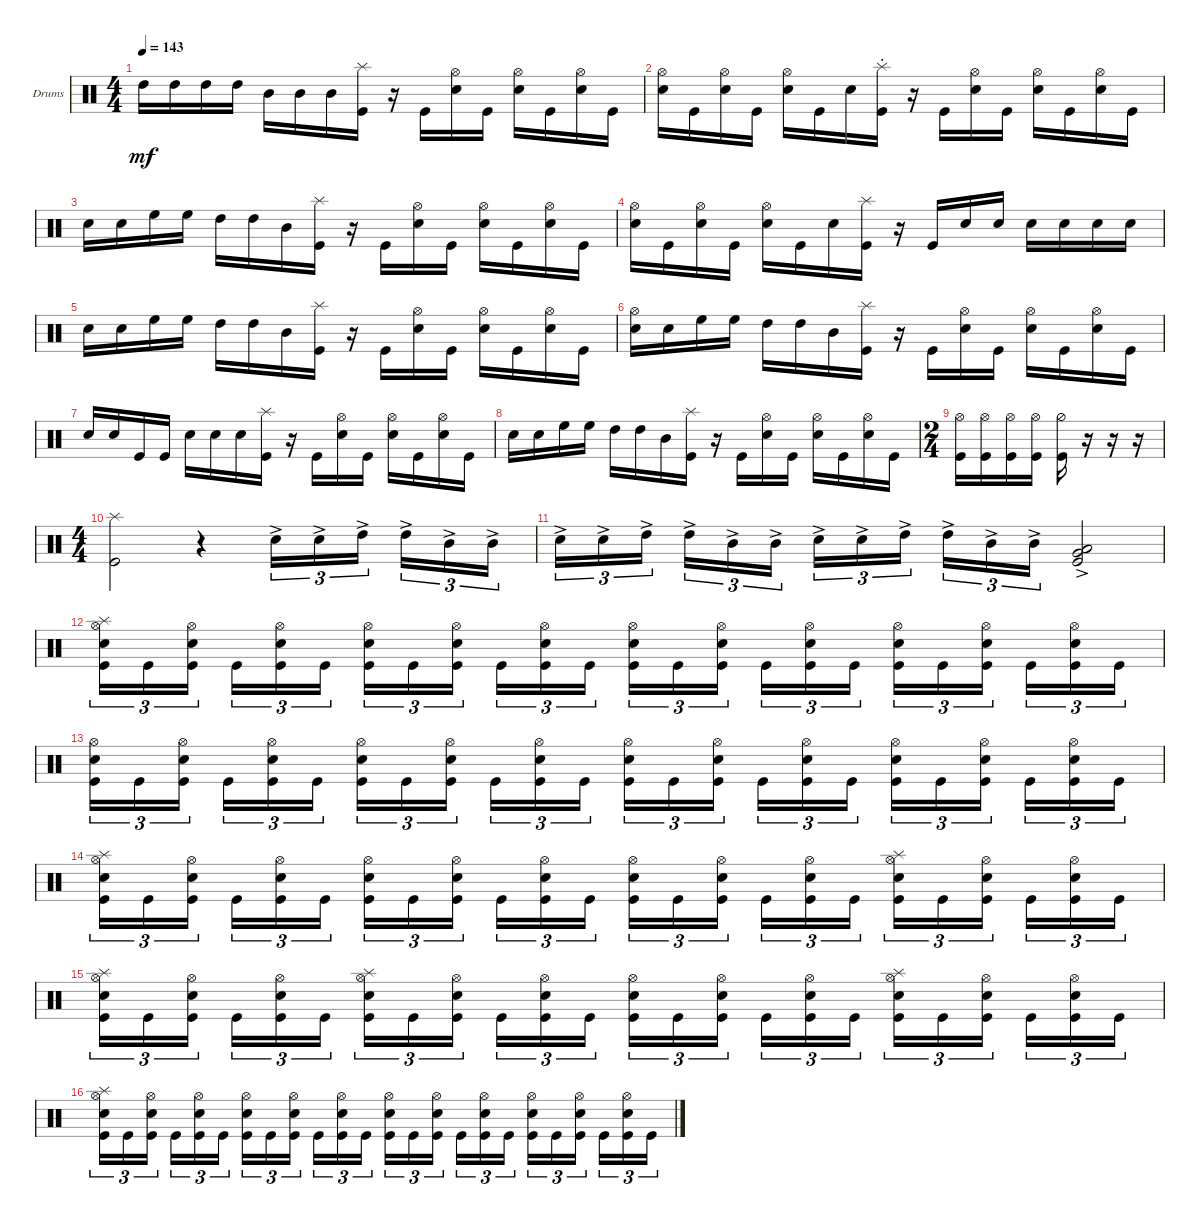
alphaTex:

\bracketExtendMode groupsimilarinstruments
\firstSystemTrackNameOrientation horizontal
\otherSystemsTrackNameOrientation horizontal
\track ("death drumz" "Drums") {instrument percussion}
\staff {score}
\articulation defaults
\ts (4 4)
\tempo 143
\clef neutral
\ks c "High Tom (hit)".16{dy mf} "High Tom (hit)".16 "High Tom (hit)".16 "High Tom (hit)".16 "Mid Tom (hit)".16 "Mid Tom (hit)".16 "Mid Tom (hit)".16
("Kick (hit)" "Splash (hit)").16 r.16 "Kick (hit)".16 ("Snare (hit) 2" "Hi-Hat (open)").16 "Kick (hit)".16 ("Snare (hit) 2" "Hi-Hat (open)").16 "Kick (hit)".16 ("Snare (hit) 2" "Hi-Hat (open)").16 "Kick (hit)".16 |
("Snare (hit) 2" "Hi-Hat (open)").16 "Kick (hit)".16 ("Snare (hit) 2" "Hi-Hat (open)").16 "Kick (hit)".16 ("Snare (hit) 2" "Hi-Hat (open)").16 "Kick (hit)".16 "Snare (hit) 2".16 ("Kick (hit)" "Splash (hit)"{st}).16 r.16 "Kick (hit)".16 ("Snare (hit) 2" "Hi-Hat (open)").16 "Kick (hit)".16 ("Snare (hit) 2" "Hi-Hat (open)").16 "Kick (hit)".16 ("Snare (hit) 2" "Hi-Hat (open)").16 "Kick (hit)".16 |
"Snare (hit) 2".16 "Snare (hit) 2".16 "High Floor Tom (hit)".16 "High Floor Tom (hit)".16 "High Tom (hit)".16 "High Tom (hit)".16 "Mid Tom (hit)".16 ("Kick (hit)" "Splash (hit)").16 r.16 "Kick (hit)".16 ("Snare (hit) 2" "Hi-Hat (open)").16 "Kick (hit)".16 ("Snare (hit) 2" "Hi-Hat (open)").16 "Kick (hit)".16 ("Snare (hit) 2" "Hi-Hat (open)").16 "Kick (hit)".16 |
("Snare (hit) 2" "Hi-Hat (open)").16 "Kick (hit)".16 ("Snare (hit) 2" "Hi-Hat (open)").16 "Kick (hit)".16 ("Snare (hit) 2" "Hi-Hat (open)").16 "Kick (hit)".16 "Snare (hit) 2".16 ("Kick (hit)" "Splash (hit)").16 r.16 "Kick (hit)".16 "Snare (hit) 2".16 "Snare (hit) 2".16 "Snare (hit) 2".16 "Snare (hit) 2".16 "Snare (hit) 2".16 "Snare (hit) 2".16 |
"Snare (hit) 2".16 "Snare (hit) 2".16 "High Floor Tom (hit)".16 "High Floor Tom (hit)".16 "High Tom (hit)".16 "High Tom (hit)".16 "Mid Tom (hit)".16 ("Kick (hit)" "Splash (hit)").16 r.16 "Kick (hit)".16 ("Snare (hit) 2" "Hi-Hat (open)").16 "Kick (hit)".16 ("Snare (hit) 2" "Hi-Hat (open)").16 "Kick (hit)".16 ("Snare (hit) 2" "Hi-Hat (open)").16 "Kick (hit)".16 |
("Snare (hit) 2" "Hi-Hat (open)").16 "Snare (hit) 2".16 "High Floor Tom (hit)".16 "High Floor Tom (hit)".16 "High Tom (hit)".16 "High Tom (hit)".16 "Mid Tom (hit)".16 ("Kick (hit)" "Splash (hit)").16 r.16 "Kick (hit)".16 ("Snare (hit) 2" "Hi-Hat (open)").16 "Kick (hit)".16 ("Snare (hit) 2" "Hi-Hat (open)").16 "Kick (hit)".16 ("Snare (hit) 2" "Hi-Hat (open)").16 "Kick (hit)".16 |
"Snare (hit) 2".16 "Snare (hit) 2".16 "Kick (hit)".16 "Kick (hit)".16 "Snare (hit) 2".16 "Snare (hit) 2".16 "Snare (hit) 2".16 ("Kick (hit)" "Splash (hit)").16 r.16 "Kick (hit)".16 ("Snare (hit) 2" "Hi-Hat (open)").16 "Kick (hit)".16 ("Snare (hit) 2" "Hi-Hat (open)").16 "Kick (hit)".16 ("Snare (hit) 2" "Hi-Hat (open)").16 "Kick (hit)".16 |
"Snare (hit) 2".16 "Snare (hit) 2".16 "High Floor Tom (hit)".16 "High Floor Tom (hit)".16 "High Tom (hit)".16 "High Tom (hit)".16 "Mid Tom (hit)".16 ("Kick (hit)" "Splash (hit)").16 r.16 "Kick (hit)".16 ("Snare (hit) 2" "Hi-Hat (open)").16 "Kick (hit)".16 ("Snare (hit) 2" "Hi-Hat (open)").16 "Kick (hit)".16 ("Snare (hit) 2" "Hi-Hat (open)").16 "Kick (hit)".16 |
\ts (2 4)
("Kick (hit)" "Hi-Hat (open)").16 ("Kick (hit)" "Hi-Hat (open)").16 ("Kick (hit)" "Hi-Hat (open)").16 ("Kick (hit)" "Hi-Hat (open)").16 ("Kick (hit)" "Hi-Hat (half)").16 r.16 r.16 r.16 |
\ts (4 4)
("Kick (hit)" "Splash (hit)").2 r.4 "Snare (hit) 2"{ac}.16{tu (3 2)} "Snare (hit) 2"{ac}.16{tu (3 2)} "High Tom (hit)"{ac}.16{tu (3 2)} "High Tom (hit)"{ac}.16{tu (3 2)} "Mid Tom (hit)"{ac}.16{tu (3 2)} "Mid Tom (hit)"{ac}.16{tu (3 2)} |
"Snare (hit) 2"{ac}.16{tu (3 2)} "Snare (hit) 2"{ac}.16{tu (3 2)} "High Tom (hit)"{ac}.16{tu (3 2)} "High Tom (hit)"{ac}.16{tu (3 2)} "Mid Tom (hit)"{ac}.16{tu (3 2)} "Mid Tom (hit)"{ac}.16{tu (3 2)} "Snare (hit) 2"{ac}.16{tu (3 2)} "Snare (hit) 2"{ac}.16{tu (3 2)} "High Tom (hit)"{ac}.16{tu (3 2)} "High Tom (hit)"{ac}.16{tu (3 2)} "Mid Tom (hit)"{ac}.16{tu (3 2)} "Mid Tom (hit)"{ac}.16{tu (3 2)} ("Very Low Tom (hit)"{ac} "Low Tom (hit)"{ac} "Kick (hit)"{ac}).2 |
("Kick (hit)" "Snare (hit) 2" "Hi-Hat (open)" "Splash (hit)").16{tu (3 2)} "Kick (hit)".16{tu (3 2)} ("Kick (hit)" "Snare (hit) 2" "Hi-Hat (open)").16{tu (3 2)} "Kick (hit)".16{tu (3 2)} ("Kick (hit)" "Snare (hit) 2" "Hi-Hat (open)").16{tu (3 2)} "Kick (hit)".16{tu (3 2)} ("Kick (hit)" "Snare (hit) 2" "Hi-Hat (open)").16{tu (3 2)} "Kick (hit)".16{tu (3 2)} ("Kick (hit)" "Snare (hit) 2" "Hi-Hat (open)").16{tu (3 2)} "Kick (hit)".16{tu (3 2)} ("Kick (hit)" "Snare (hit) 2" "Hi-Hat (open)").16{tu (3 2)} "Kick (hit)".16{tu (3 2)} ("Kick (hit)" "Snare (hit) 2" "Hi-Hat (open)").16{tu (3 2)} "Kick (hit)".16{tu (3 2)} ("Kick (hit)" "Snare (hit) 2" "Hi-Hat (open)").16{tu (3 2)} "Kick (hit)".16{tu (3 2)} ("Kick (hit)" "Snare (hit) 2" "Hi-Hat (open)").16{tu (3 2)} "Kick (hit)".16{tu (3 2)} ("Kick (hit)" "Snare (hit) 2" "Hi-Hat (open)").16{tu (3 2)} "Kick (hit)".16{tu (3 2)} ("Kick (hit)" "Snare (hit) 2" "Hi-Hat (open)").16{tu (3 2)} "Kick (hit)".16{tu (3 2)} ("Kick (hit)" "Snare (hit) 2" "Hi-Hat (open)").16{tu (3 2)} "Kick (hit)".16{tu (3 2)} |
("Kick (hit)" "Snare (hit) 2" "Hi-Hat (open)").16{tu (3 2)} "Kick (hit)".16{tu (3 2)} ("Kick (hit)" "Snare (hit) 2" "Hi-Hat (open)").16{tu (3 2)} "Kick (hit)".16{tu (3 2)} ("Kick (hit)" "Snare (hit) 2" "Hi-Hat (open)").16{tu (3 2)} "Kick (hit)".16{tu (3 2)} ("Kick (hit)" "Snare (hit) 2" "Hi-Hat (open)").16{tu (3 2)} "Kick (hit)".16{tu (3 2)} ("Kick (hit)" "Snare (hit) 2" "Hi-Hat (open)").16{tu (3 2)} "Kick (hit)".16{tu (3 2)} ("Kick (hit)" "Snare (hit) 2" "Hi-Hat (open)").16{tu (3 2)} "Kick (hit)".16{tu (3 2)} ("Kick (hit)" "Snare (hit) 2" "Hi-Hat (open)").16{tu (3 2)} "Kick (hit)".16{tu (3 2)} ("Kick (hit)" "Snare (hit) 2" "Hi-Hat (open)").16{tu (3 2)} "Kick (hit)".16{tu (3 2)} ("Kick (hit)" "Snare (hit) 2" "Hi-Hat (open)").16{tu (3 2)} "Kick (hit)".16{tu (3 2)} ("Kick (hit)" "Snare (hit) 2" "Hi-Hat (open)").16{tu (3 2)} "Kick (hit)".16{tu (3 2)} ("Kick (hit)" "Snare (hit) 2" "Hi-Hat (open)").16{tu (3 2)} "Kick (hit)".16{tu (3 2)} ("Kick (hit)" "Snare (hit) 2" "Hi-Hat (open)").16{tu (3 2)} "Kick (hit)".16{tu (3 2)} |
("Kick (hit)" "Snare (hit) 2" "Hi-Hat (open)" "Splash (hit)").16{tu (3 2)} "Kick (hit)".16{tu (3 2)} ("Kick (hit)" "Snare (hit) 2" "Hi-Hat (open)").16{tu (3 2)} "Kick (hit)".16{tu (3 2)} ("Kick (hit)" "Snare (hit) 2" "Hi-Hat (open)").16{tu (3 2)} "Kick (hit)".16{tu (3 2)} ("Kick (hit)" "Snare (hit) 2" "Hi-Hat (open)").16{tu (3 2)} "Kick (hit)".16{tu (3 2)} ("Kick (hit)" "Snare (hit) 2" "Hi-Hat (open)").16{tu (3 2)} "Kick (hit)".16{tu (3 2)} ("Kick (hit)" "Snare (hit) 2" "Hi-Hat (open)").16{tu (3 2)} "Kick (hit)".16{tu (3 2)} ("Kick (hit)" "Snare (hit) 2" "Hi-Hat (open)").16{tu (3 2)} "Kick (hit)".16{tu (3 2)} ("Kick (hit)" "Snare (hit) 2" "Hi-Hat (open)").16{tu (3 2)} "Kick (hit)".16{tu (3 2)} ("Kick (hit)" "Snare (hit) 2" "Hi-Hat (open)").16{tu (3 2)} "Kick (hit)".16{tu (3 2)} ("Kick (hit)" "Snare (hit) 2" "Hi-Hat (open)" "Splash (hit)").16{tu (3 2)} "Kick (hit)".16{tu (3 2)} ("Kick (hit)" "Snare (hit) 2" "Hi-Hat (open)").16{tu (3 2)} "Kick (hit)".16{tu (3 2)} ("Kick (hit)" "Snare (hit) 2" "Hi-Hat (open)").16{tu (3 2)} "Kick (hit)".16{tu (3 2)} |
("Kick (hit)" "Snare (hit) 2" "Hi-Hat (open)" "Splash (hit)").16{tu (3 2)} "Kick (hit)".16{tu (3 2)} ("Kick (hit)" "Snare (hit) 2" "Hi-Hat (open)").16{tu (3 2)} "Kick (hit)".16{tu (3 2)} ("Kick (hit)" "Snare (hit) 2" "Hi-Hat (open)").16{tu (3 2)} "Kick (hit)".16{tu (3 2)} ("Kick (hit)" "Snare (hit) 2" "Hi-Hat (open)" "Splash (hit)").16{tu (3 2)} "Kick (hit)".16{tu (3 2)} ("Kick (hit)" "Snare (hit) 2" "Hi-Hat (open)").16{tu (3 2)} "Kick (hit)".16{tu (3 2)} ("Kick (hit)" "Snare (hit) 2" "Hi-Hat (open)").16{tu (3 2)} "Kick (hit)".16{tu (3 2)} ("Kick (hit)" "Snare (hit) 2" "Hi-Hat (open)").16{tu (3 2)} "Kick (hit)".16{tu (3 2)} ("Kick (hit)" "Snare (hit) 2" "Hi-Hat (open)").16{tu (3 2)} "Kick (hit)".16{tu (3 2)} ("Kick (hit)" "Snare (hit) 2" "Hi-Hat (open)").16{tu (3 2)} "Kick (hit)".16{tu (3 2)} ("Kick (hit)" "Snare (hit) 2" "Hi-Hat (open)" "Splash (hit)").16{tu (3 2)} "Kick (hit)".16{tu (3 2)} ("Kick (hit)" "Snare (hit) 2" "Hi-Hat (open)").16{tu (3 2)} "Kick (hit)".16{tu (3 2)} ("Kick (hit)" "Snare (hit) 2" "Hi-Hat (open)").16{tu (3 2)} "Kick (hit)".16{tu (3 2)} |
("Kick (hit)" "Snare (hit) 2" "Hi-Hat (open)" "Splash (hit)").16{tu (3 2)} "Kick (hit)".16{tu (3 2)} ("Kick (hit)" "Snare (hit) 2" "Hi-Hat (open)").16{tu (3 2)} "Kick (hit)".16{tu (3 2)} ("Kick (hit)" "Snare (hit) 2" "Hi-Hat (open)").16{tu (3 2)} "Kick (hit)".16{tu (3 2)} ("Kick (hit)" "Snare (hit) 2" "Hi-Hat (open)").16{tu (3 2)} "Kick (hit)".16{tu (3 2)} ("Kick (hit)" "Snare (hit) 2" "Hi-Hat (open)").16{tu (3 2)} "Kick (hit)".16{tu (3 2)} ("Kick (hit)" "Snare (hit) 2" "Hi-Hat (open)").16{tu (3 2)} "Kick (hit)".16{tu (3 2)} ("Kick (hit)" "Snare (hit) 2" "Hi-Hat (open)").16{tu (3 2)} "Kick (hit)".16{tu (3 2)} ("Kick (hit)" "Snare (hit) 2" "Hi-Hat (open)").16{tu (3 2)} "Kick (hit)".16{tu (3 2)} ("Kick (hit)" "Snare (hit) 2" "Hi-Hat (open)").16{tu (3 2)} "Kick (hit)".16{tu (3 2)} ("Kick (hit)" "Snare (hit) 2" "Hi-Hat (open)").16{tu (3 2)} "Kick (hit)".16{tu (3 2)} ("Kick (hit)" "Snare (hit) 2" "Hi-Hat (open)").16{tu (3 2)} "Kick (hit)".16{tu (3 2)} ("Kick (hit)" "Snare (hit) 2" "Hi-Hat (open)").16{tu (3 2)} "Kick (hit)".16{tu (3 2)}
